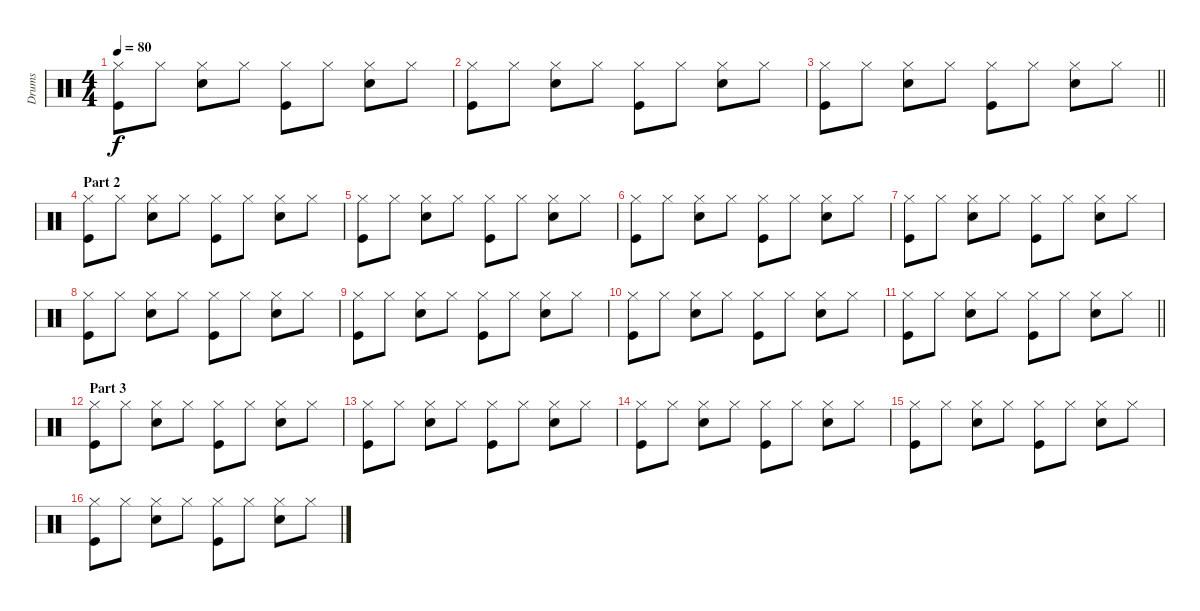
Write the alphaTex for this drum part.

\track ("Drums" "Drums") {instrument percussion}
\staff {score}
\articulation defaults
\ts (4 4)
\tempo 80
\clef neutral
\ks c
("Hi-Hat (closed)" "Kick (hit)").8{dy f} "Hi-Hat (closed)".8 ("Hi-Hat (closed)" "Snare (hit) 2").8 "Hi-Hat (closed)".8 ("Hi-Hat (closed)" "Kick (hit)").8 "Hi-Hat (closed)".8 ("Hi-Hat (closed)" "Snare (hit) 2").8 "Hi-Hat (closed)".8 |
("Hi-Hat (closed)" "Kick (hit)").8 "Hi-Hat (closed)".8 ("Hi-Hat (closed)" "Snare (hit) 2").8 "Hi-Hat (closed)".8 ("Hi-Hat (closed)" "Kick (hit)").8 "Hi-Hat (closed)".8 ("Hi-Hat (closed)" "Snare (hit) 2").8 "Hi-Hat (closed)".8 |
\barLineRight lightlight
("Hi-Hat (closed)" "Kick (hit)").8 "Hi-Hat (closed)".8 ("Hi-Hat (closed)" "Snare (hit) 2").8 "Hi-Hat (closed)".8 ("Hi-Hat (closed)" "Kick (hit)").8 "Hi-Hat (closed)".8 ("Hi-Hat (closed)" "Snare (hit) 2").8 "Hi-Hat (closed)".8 |
\section ("" "Part 2")
("Hi-Hat (closed)" "Kick (hit)").8 "Hi-Hat (closed)".8 ("Hi-Hat (closed)" "Snare (hit) 2").8 "Hi-Hat (closed)".8 ("Hi-Hat (closed)" "Kick (hit)").8 "Hi-Hat (closed)".8 ("Hi-Hat (closed)" "Snare (hit) 2").8 "Hi-Hat (closed)".8 |
("Hi-Hat (closed)" "Kick (hit)").8 "Hi-Hat (closed)".8 ("Hi-Hat (closed)" "Snare (hit) 2").8 "Hi-Hat (closed)".8 ("Hi-Hat (closed)" "Kick (hit)").8 "Hi-Hat (closed)".8 ("Hi-Hat (closed)" "Snare (hit) 2").8 "Hi-Hat (closed)".8 |
("Hi-Hat (closed)" "Kick (hit)").8 "Hi-Hat (closed)".8 ("Hi-Hat (closed)" "Snare (hit) 2").8 "Hi-Hat (closed)".8 ("Hi-Hat (closed)" "Kick (hit)").8 "Hi-Hat (closed)".8 ("Hi-Hat (closed)" "Snare (hit) 2").8 "Hi-Hat (closed)".8 |
("Hi-Hat (closed)" "Kick (hit)").8 "Hi-Hat (closed)".8 ("Hi-Hat (closed)" "Snare (hit) 2").8 "Hi-Hat (closed)".8 ("Hi-Hat (closed)" "Kick (hit)").8 "Hi-Hat (closed)".8 ("Hi-Hat (closed)" "Snare (hit) 2").8 "Hi-Hat (closed)".8 |
("Hi-Hat (closed)" "Kick (hit)").8 "Hi-Hat (closed)".8 ("Hi-Hat (closed)" "Snare (hit) 2").8 "Hi-Hat (closed)".8 ("Hi-Hat (closed)" "Kick (hit)").8 "Hi-Hat (closed)".8 ("Hi-Hat (closed)" "Snare (hit) 2").8 "Hi-Hat (closed)".8 |
("Hi-Hat (closed)" "Kick (hit)").8 "Hi-Hat (closed)".8 ("Hi-Hat (closed)" "Snare (hit) 2").8 "Hi-Hat (closed)".8 ("Hi-Hat (closed)" "Kick (hit)").8 "Hi-Hat (closed)".8 ("Hi-Hat (closed)" "Snare (hit) 2").8 "Hi-Hat (closed)".8 |
("Hi-Hat (closed)" "Kick (hit)").8 "Hi-Hat (closed)".8 ("Hi-Hat (closed)" "Snare (hit) 2").8 "Hi-Hat (closed)".8 ("Hi-Hat (closed)" "Kick (hit)").8 "Hi-Hat (closed)".8 ("Hi-Hat (closed)" "Snare (hit) 2").8 "Hi-Hat (closed)".8 |
\barLineRight lightlight
("Hi-Hat (closed)" "Kick (hit)").8 "Hi-Hat (closed)".8 ("Hi-Hat (closed)" "Snare (hit) 2").8 "Hi-Hat (closed)".8 ("Hi-Hat (closed)" "Kick (hit)").8 "Hi-Hat (closed)".8 ("Hi-Hat (closed)" "Snare (hit) 2").8 "Hi-Hat (closed)".8 |
\section ("" "Part 3")
("Hi-Hat (closed)" "Kick (hit)").8 "Hi-Hat (closed)".8 ("Hi-Hat (closed)" "Snare (hit) 2").8 "Hi-Hat (closed)".8 ("Hi-Hat (closed)" "Kick (hit)").8 "Hi-Hat (closed)".8 ("Hi-Hat (closed)" "Snare (hit) 2").8 "Hi-Hat (closed)".8 |
("Hi-Hat (closed)" "Kick (hit)").8 "Hi-Hat (closed)".8 ("Hi-Hat (closed)" "Snare (hit) 2").8 "Hi-Hat (closed)".8 ("Hi-Hat (closed)" "Kick (hit)").8 "Hi-Hat (closed)".8 ("Hi-Hat (closed)" "Snare (hit) 2").8 "Hi-Hat (closed)".8 |
("Hi-Hat (closed)" "Kick (hit)").8 "Hi-Hat (closed)".8 ("Hi-Hat (closed)" "Snare (hit) 2").8 "Hi-Hat (closed)".8 ("Hi-Hat (closed)" "Kick (hit)").8 "Hi-Hat (closed)".8 ("Hi-Hat (closed)" "Snare (hit) 2").8 "Hi-Hat (closed)".8 |
("Hi-Hat (closed)" "Kick (hit)").8 "Hi-Hat (closed)".8 ("Hi-Hat (closed)" "Snare (hit) 2").8 "Hi-Hat (closed)".8 ("Hi-Hat (closed)" "Kick (hit)").8 "Hi-Hat (closed)".8 ("Hi-Hat (closed)" "Snare (hit) 2").8 "Hi-Hat (closed)".8 |
("Hi-Hat (closed)" "Kick (hit)").8 "Hi-Hat (closed)".8 ("Hi-Hat (closed)" "Snare (hit) 2").8 "Hi-Hat (closed)".8 ("Hi-Hat (closed)" "Kick (hit)").8 "Hi-Hat (closed)".8 ("Hi-Hat (closed)" "Snare (hit) 2").8 "Hi-Hat (closed)".8
